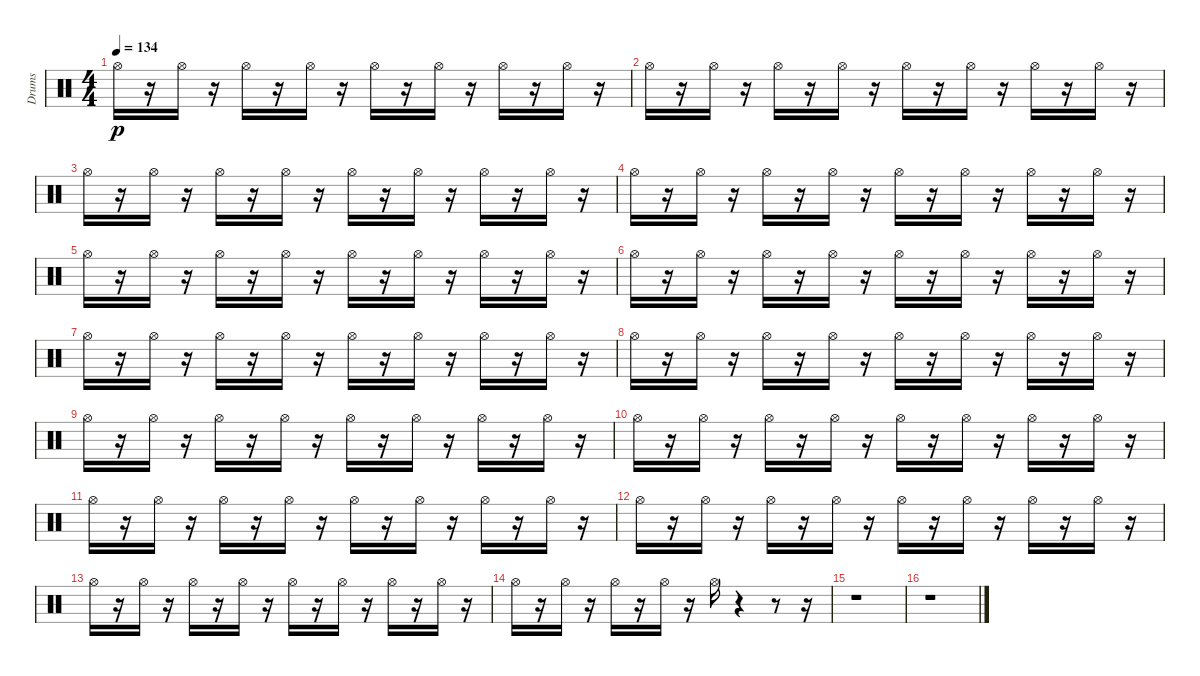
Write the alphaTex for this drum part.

\track ("Drums" "Drums") {instrument percussion}
\staff {score}
\articulation defaults
\ts (4 4)
\tempo 134
\clef neutral
\ks c "Hi-Hat (open)".16{dy p}
r.16 "Hi-Hat (open)".16 r.16 "Hi-Hat (open)".16 r.16 "Hi-Hat (open)".16 r.16 "Hi-Hat (open)".16 r.16 "Hi-Hat (open)".16 r.16 "Hi-Hat (open)".16 r.16 "Hi-Hat (open)".16 r.16 |
"Hi-Hat (open)".16 r.16 "Hi-Hat (open)".16 r.16 "Hi-Hat (open)".16 r.16 "Hi-Hat (open)".16 r.16 "Hi-Hat (open)".16 r.16 "Hi-Hat (open)".16 r.16 "Hi-Hat (open)".16 r.16 "Hi-Hat (open)".16 r.16 |
"Hi-Hat (open)".16 r.16 "Hi-Hat (open)".16 r.16 "Hi-Hat (open)".16 r.16 "Hi-Hat (open)".16 r.16 "Hi-Hat (open)".16 r.16 "Hi-Hat (open)".16 r.16 "Hi-Hat (open)".16 r.16 "Hi-Hat (open)".16 r.16 |
"Hi-Hat (open)".16 r.16 "Hi-Hat (open)".16 r.16 "Hi-Hat (open)".16 r.16 "Hi-Hat (open)".16 r.16 "Hi-Hat (open)".16 r.16 "Hi-Hat (open)".16 r.16 "Hi-Hat (open)".16 r.16 "Hi-Hat (open)".16 r.16 |
"Hi-Hat (open)".16 r.16 "Hi-Hat (open)".16 r.16 "Hi-Hat (open)".16 r.16 "Hi-Hat (open)".16 r.16 "Hi-Hat (open)".16 r.16 "Hi-Hat (open)".16 r.16 "Hi-Hat (open)".16 r.16 "Hi-Hat (open)".16 r.16 |
"Hi-Hat (open)".16 r.16 "Hi-Hat (open)".16 r.16 "Hi-Hat (open)".16 r.16 "Hi-Hat (open)".16 r.16 "Hi-Hat (open)".16 r.16 "Hi-Hat (open)".16 r.16 "Hi-Hat (open)".16 r.16 "Hi-Hat (open)".16 r.16 |
"Hi-Hat (open)".16 r.16 "Hi-Hat (open)".16 r.16 "Hi-Hat (open)".16 r.16 "Hi-Hat (open)".16 r.16 "Hi-Hat (open)".16 r.16 "Hi-Hat (open)".16 r.16 "Hi-Hat (open)".16 r.16 "Hi-Hat (open)".16 r.16 |
"Hi-Hat (open)".16 r.16 "Hi-Hat (open)".16 r.16 "Hi-Hat (open)".16 r.16 "Hi-Hat (open)".16 r.16 "Hi-Hat (open)".16 r.16 "Hi-Hat (open)".16 r.16 "Hi-Hat (open)".16 r.16 "Hi-Hat (open)".16 r.16 |
"Hi-Hat (open)".16 r.16 "Hi-Hat (open)".16 r.16 "Hi-Hat (open)".16 r.16 "Hi-Hat (open)".16 r.16 "Hi-Hat (open)".16 r.16 "Hi-Hat (open)".16 r.16 "Hi-Hat (open)".16 r.16 "Hi-Hat (open)".16 r.16 |
"Hi-Hat (open)".16 r.16 "Hi-Hat (open)".16 r.16 "Hi-Hat (open)".16 r.16 "Hi-Hat (open)".16 r.16 "Hi-Hat (open)".16 r.16 "Hi-Hat (open)".16 r.16 "Hi-Hat (open)".16 r.16 "Hi-Hat (open)".16 r.16 |
"Hi-Hat (open)".16 r.16 "Hi-Hat (open)".16 r.16 "Hi-Hat (open)".16 r.16 "Hi-Hat (open)".16 r.16 "Hi-Hat (open)".16 r.16 "Hi-Hat (open)".16 r.16 "Hi-Hat (open)".16 r.16 "Hi-Hat (open)".16 r.16 |
"Hi-Hat (open)".16 r.16 "Hi-Hat (open)".16 r.16 "Hi-Hat (open)".16 r.16 "Hi-Hat (open)".16 r.16 "Hi-Hat (open)".16 r.16 "Hi-Hat (open)".16 r.16 "Hi-Hat (open)".16 r.16 "Hi-Hat (open)".16 r.16 |
"Hi-Hat (open)".16 r.16 "Hi-Hat (open)".16 r.16 "Hi-Hat (open)".16 r.16 "Hi-Hat (open)".16 r.16 "Hi-Hat (open)".16 r.16 "Hi-Hat (open)".16 r.16 "Hi-Hat (open)".16 r.16 "Hi-Hat (open)".16 r.16 |
"Hi-Hat (open)".16 r.16 "Hi-Hat (open)".16 r.16 "Hi-Hat (open)".16 r.16 "Hi-Hat (open)".16 r.16 "Hi-Hat (open)".16 r.4 r.8 r.16 |
r.1 |
r.1
